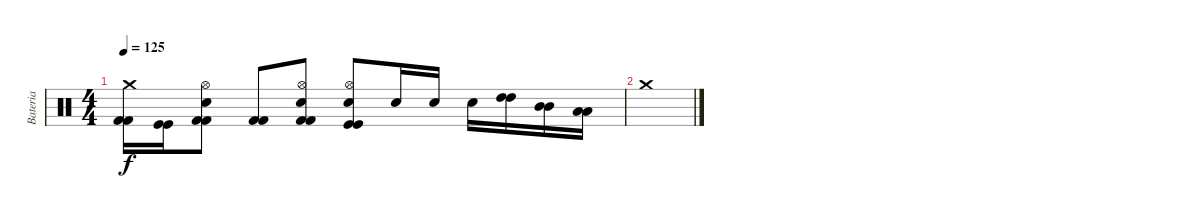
\track ("Bateria" "Bateria") {instrument percussion}
\staff {score}
\articulation defaults
\ts (4 4)
\tempo 125
\clef neutral
\ks c
("Crash medium (hit)" "Kick (hit) 2" "Kick (hit) 2").16{dy f} ("Kick (hit)" "Kick (hit)").16 ("Hi-Hat (open)" "Electric Snare (hit)" "Kick (hit) 2" "Kick (hit) 2").8 ("Kick (hit) 2" "Kick (hit) 2").8 ("Hi-Hat (open)" "Electric Snare (hit)" "Kick (hit) 2" "Kick (hit) 2").8 ("Hi-Hat (open)" "Electric Snare (hit)" "Kick (hit)" "Kick (hit)").8 "Electric Snare (hit)".16 "Electric Snare (hit)".16 "Electric Snare (hit)".16 ("High Tom (hit)" "High Tom (hit)").16 ("Mid Tom (hit)" "Mid Tom (hit)").16 ("Low Tom (hit)" "Low Tom (hit)").16 |
"Crash medium (hit)".1
